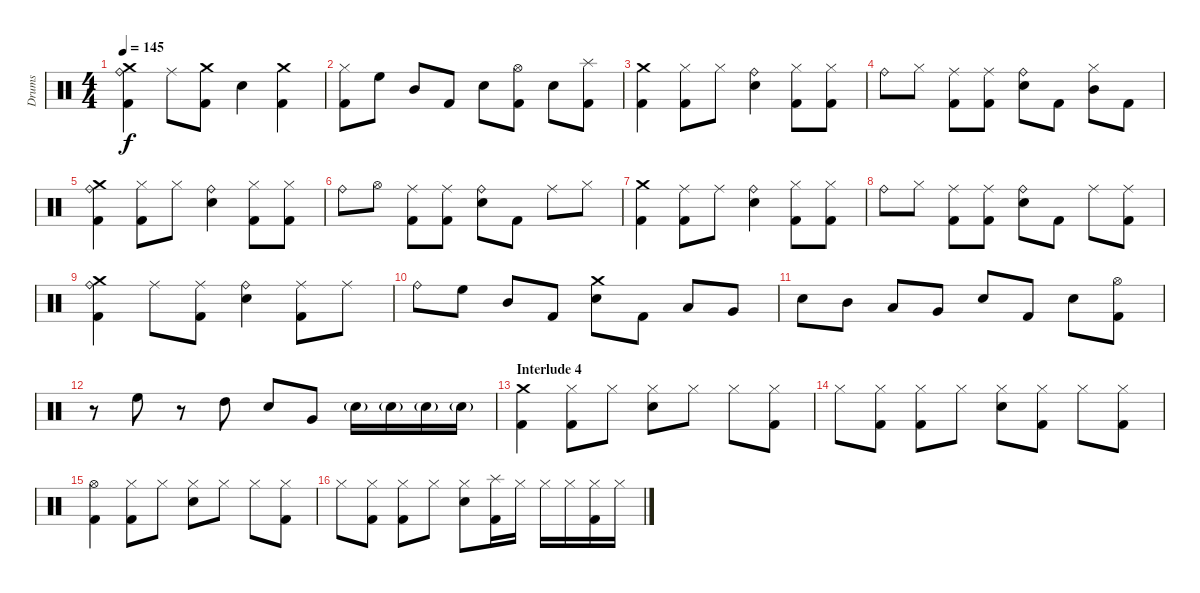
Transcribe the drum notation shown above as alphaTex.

\track ("Drums" "Drums") {instrument percussion}
\staff {score}
\articulation defaults
\ts (4 4)
\tempo 145
\clef neutral
\ks c
("Crash medium (hit)" "Ride (bell)" "Kick (hit) 2").4{dy f} "Ride (middle)".8 ("Crash medium (hit)" "Kick (hit) 2").8 "Snare (hit) 2".4 ("Crash medium (hit)" "Kick (hit) 2").4 |
("Hi-Hat (closed)" "Kick (hit) 2").8 "High Floor Tom (hit)".8 "Mid Tom (hit)".8 "Kick (hit) 2".8 "Snare (hit) 2".8 ("Hi-Hat (open)" "Kick (hit) 2").8 "Snare (hit) 2".8 ("Splash (hit)" "Kick (hit) 2").8 |
("Crash medium (hit)" "Kick (hit) 2").4 ("Hi-Hat (closed)" "Kick (hit) 2").8 "Hi-Hat (closed)".8 ("Ride (bell)" "Snare (hit) 2").4 ("Hi-Hat (closed)" "Kick (hit) 2").8 ("Hi-Hat (closed)" "Kick (hit) 2").8 |
"Ride (bell)".8 "Hi-Hat (closed)".8 ("Ride (middle)" "Kick (hit) 2").8 ("Ride (middle)" "Kick (hit) 2").8 ("Ride (bell)" "Snare (hit) 2").8 "Kick (hit) 2".8 ("Hi-Hat (closed)" "Mid Tom (hit)").8 "Kick (hit) 2".8 |
("Crash medium (hit)" "Ride (bell)" "Kick (hit) 2").4 ("Hi-Hat (closed)" "Kick (hit) 2").8 "Hi-Hat (closed)".8 ("Ride (bell)" "Snare (hit) 2").4 ("Hi-Hat (closed)" "Kick (hit) 2").8 ("Hi-Hat (closed)" "Kick (hit) 2").8 |
"Ride (bell)".8 "Hi-Hat (open)".8 ("Ride (middle)" "Kick (hit) 2").8 ("Ride (middle)" "Kick (hit) 2").8 ("Ride (bell)" "Snare (hit) 2").8 "Kick (hit) 2".8 "Ride (middle)".8 "Hi-Hat (closed)".8 |
("Crash medium (hit)" "Kick (hit) 2").4 ("Ride (middle)" "Kick (hit) 2").8 "Ride (middle)".8 ("Ride (bell)" "Snare (hit) 2").4 ("Hi-Hat (closed)" "Kick (hit) 2").8 ("Hi-Hat (closed)" "Kick (hit) 2").8 |
"Ride (bell)".8 "Hi-Hat (closed)".8 ("Ride (middle)" "Kick (hit) 2").8 ("Ride (middle)" "Kick (hit) 2").8 ("Ride (bell)" "Snare (hit) 2").8 "Kick (hit) 2".8 "Ride (middle)".8 ("Ride (middle)" "Kick (hit) 2").8 |
("Crash medium (hit)" "Ride (bell)" "Kick (hit) 2").4 "Ride (middle)".8 ("Ride (middle)" "Kick (hit) 2").8 ("Ride (bell)" "Snare (hit) 2").4 ("Ride (middle)" "Kick (hit) 2").8 "Ride (middle)".8 |
"Ride (bell)".8 "High Floor Tom (hit)".8 "Mid Tom (hit)".8 "Kick (hit) 2".8 ("Crash medium (hit)" "Snare (hit) 2").8 "Kick (hit) 2".8 "Low Tom (hit)".8 "Very Low Tom (hit)".8 |
"Snare (hit) 2".8 "Mid Tom (hit)".8 "Low Tom (hit)".8 "Very Low Tom (hit)".8 "Snare (hit) 2".8 "Kick (hit) 2".8 "Snare (hit) 2".8 ("Hi-Hat (open)" "Kick (hit) 2").8 |
r.8 "High Floor Tom (hit)".8 r.8 "High Tom (hit)".8 "Snare (hit) 2".8 "Very Low Tom (hit)".8 "Snare (hit) 2"{g}.16 "Snare (hit) 2"{g}.16 "Snare (hit) 2"{g}.16 "Snare (hit) 2"{g}.16 |
\section ("" "Interlude 4")
("Crash medium (hit)" "Kick (hit) 2").4 ("Hi-Hat (closed)" "Kick (hit) 2").8 "Hi-Hat (closed)".8 ("Hi-Hat (closed)" "Snare (hit) 2").8 "Hi-Hat (closed)".8 "Hi-Hat (closed)".8 ("Hi-Hat (closed)" "Kick (hit) 2").8 |
"Hi-Hat (closed)".8 ("Hi-Hat (closed)" "Kick (hit) 2").8 ("Hi-Hat (closed)" "Kick (hit) 2").8 "Hi-Hat (closed)".8 ("Hi-Hat (closed)" "Snare (hit) 2").8 ("Hi-Hat (closed)" "Kick (hit) 2").8 "Hi-Hat (closed)".8 ("Hi-Hat (closed)" "Kick (hit) 2").8 |
("Hi-Hat (open)" "Kick (hit) 2").4 ("Hi-Hat (closed)" "Kick (hit) 2").8 "Hi-Hat (closed)".8 ("Hi-Hat (closed)" "Snare (hit) 2").8 "Hi-Hat (closed)".8 "Hi-Hat (closed)".8 ("Hi-Hat (closed)" "Kick (hit) 2").8 |
"Hi-Hat (closed)".8 ("Hi-Hat (closed)" "Kick (hit) 2").8 ("Hi-Hat (closed)" "Kick (hit) 2").8 "Hi-Hat (closed)".8 ("Hi-Hat (closed)" "Snare (hit) 2").8 ("Splash (hit)" "Kick (hit) 2").16 "Hi-Hat (closed)".16 "Hi-Hat (closed)".16 "Hi-Hat (closed)".16 ("Hi-Hat (closed)" "Kick (hit) 2").16 "Hi-Hat (closed)".16
